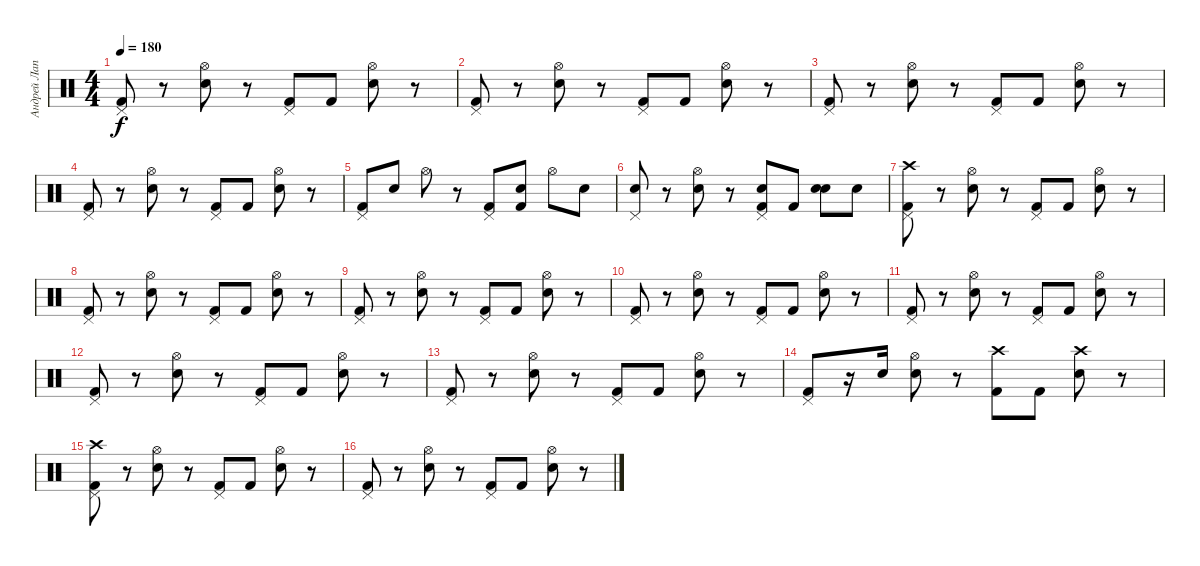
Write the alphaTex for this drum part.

\track ("Андрей Лаптев" "Андрей Лап") {instrument percussion}
\staff {score}
\articulation defaults
\ts (4 4)
\tempo 180
\clef neutral
\ks c
("Kick (hit) 2" "Pedal Hi-Hat (hit)").8{dy f} r.8 ("Snare (hit) 2" "Hi-Hat (open)").8 r.8 ("Kick (hit) 2" "Pedal Hi-Hat (hit)").8 "Kick (hit) 2".8 ("Snare (hit) 2" "Hi-Hat (open)").8 r.8 |
("Kick (hit) 2" "Pedal Hi-Hat (hit)").8 r.8 ("Snare (hit) 2" "Hi-Hat (open)").8 r.8 ("Kick (hit) 2" "Pedal Hi-Hat (hit)").8 "Kick (hit) 2".8 ("Snare (hit) 2" "Hi-Hat (open)").8 r.8 |
("Kick (hit) 2" "Pedal Hi-Hat (hit)").8 r.8 ("Snare (hit) 2" "Hi-Hat (open)").8 r.8 ("Kick (hit) 2" "Pedal Hi-Hat (hit)").8 "Kick (hit) 2".8 ("Snare (hit) 2" "Hi-Hat (open)").8 r.8 |
("Kick (hit) 2" "Pedal Hi-Hat (hit)").8 r.8 ("Snare (hit) 2" "Hi-Hat (open)").8 r.8 ("Kick (hit) 2" "Pedal Hi-Hat (hit)").8 "Kick (hit) 2".8 ("Snare (hit) 2" "Hi-Hat (open)").8 r.8 |
("Kick (hit) 2" "Pedal Hi-Hat (hit)").8 "Snare (hit) 2".8 "Hi-Hat (open)".8 r.8 ("Kick (hit) 2" "Pedal Hi-Hat (hit)").8 ("Snare (hit) 2" "Kick (hit) 2").8 "Hi-Hat (open)".8 "Snare (hit) 2".8 |
("Snare (hit) 2" "Pedal Hi-Hat (hit)").8 r.8 ("Snare (hit) 2" "Hi-Hat (open)").8 r.8 ("Snare (hit) 2" "Kick (hit) 2" "Pedal Hi-Hat (hit)").8 "Kick (hit) 2".8 ("Snare (hit) 2" "Electric Snare (hit)").8 "Snare (hit) 2".8 |
("Kick (hit) 2" "Crash high (hit)" "Pedal Hi-Hat (hit)").8 r.8 ("Snare (hit) 2" "Hi-Hat (open)").8 r.8 ("Kick (hit) 2" "Pedal Hi-Hat (hit)").8 "Kick (hit) 2".8 ("Snare (hit) 2" "Hi-Hat (open)").8 r.8 |
("Kick (hit) 2" "Pedal Hi-Hat (hit)").8 r.8 ("Snare (hit) 2" "Hi-Hat (open)").8 r.8 ("Kick (hit) 2" "Pedal Hi-Hat (hit)").8 "Kick (hit) 2".8 ("Snare (hit) 2" "Hi-Hat (open)").8 r.8 |
("Kick (hit) 2" "Pedal Hi-Hat (hit)").8 r.8 ("Snare (hit) 2" "Hi-Hat (open)").8 r.8 ("Kick (hit) 2" "Pedal Hi-Hat (hit)").8 "Kick (hit) 2".8 ("Snare (hit) 2" "Hi-Hat (open)").8 r.8 |
("Kick (hit) 2" "Pedal Hi-Hat (hit)").8 r.8 ("Snare (hit) 2" "Hi-Hat (open)").8 r.8 ("Kick (hit) 2" "Pedal Hi-Hat (hit)").8 "Kick (hit) 2".8 ("Snare (hit) 2" "Hi-Hat (open)").8 r.8 |
("Kick (hit) 2" "Pedal Hi-Hat (hit)").8 r.8 ("Snare (hit) 2" "Hi-Hat (open)").8 r.8 ("Kick (hit) 2" "Pedal Hi-Hat (hit)").8 "Kick (hit) 2".8 ("Snare (hit) 2" "Hi-Hat (open)").8 r.8 |
("Kick (hit) 2" "Pedal Hi-Hat (hit)").8 r.8 ("Snare (hit) 2" "Hi-Hat (open)").8 r.8 ("Kick (hit) 2" "Pedal Hi-Hat (hit)").8 "Kick (hit) 2".8 ("Snare (hit) 2" "Hi-Hat (open)").8 r.8 |
("Kick (hit) 2" "Pedal Hi-Hat (hit)").8 r.8 ("Snare (hit) 2" "Hi-Hat (open)").8 r.8 ("Kick (hit) 2" "Pedal Hi-Hat (hit)").8 "Kick (hit) 2".8 ("Snare (hit) 2" "Hi-Hat (open)").8 r.8 |
("Kick (hit) 2" "Pedal Hi-Hat (hit)").8 r.16 "Snare (hit) 2".16 ("Snare (hit) 2" "Hi-Hat (open)").8 r.8 ("Kick (hit) 2" "Crash high (hit)").8 "Kick (hit) 2".8 ("Snare (hit) 2" "Crash high (hit)").8 r.8 |
("Kick (hit) 2" "Crash high (hit)" "Pedal Hi-Hat (hit)").8 r.8 ("Snare (hit) 2" "Hi-Hat (open)").8 r.8 ("Kick (hit) 2" "Pedal Hi-Hat (hit)").8 "Kick (hit) 2".8 ("Snare (hit) 2" "Hi-Hat (open)").8 r.8 |
("Kick (hit) 2" "Pedal Hi-Hat (hit)").8 r.8 ("Snare (hit) 2" "Hi-Hat (open)").8 r.8 ("Kick (hit) 2" "Pedal Hi-Hat (hit)").8 "Kick (hit) 2".8 ("Snare (hit) 2" "Hi-Hat (open)").8 r.8
